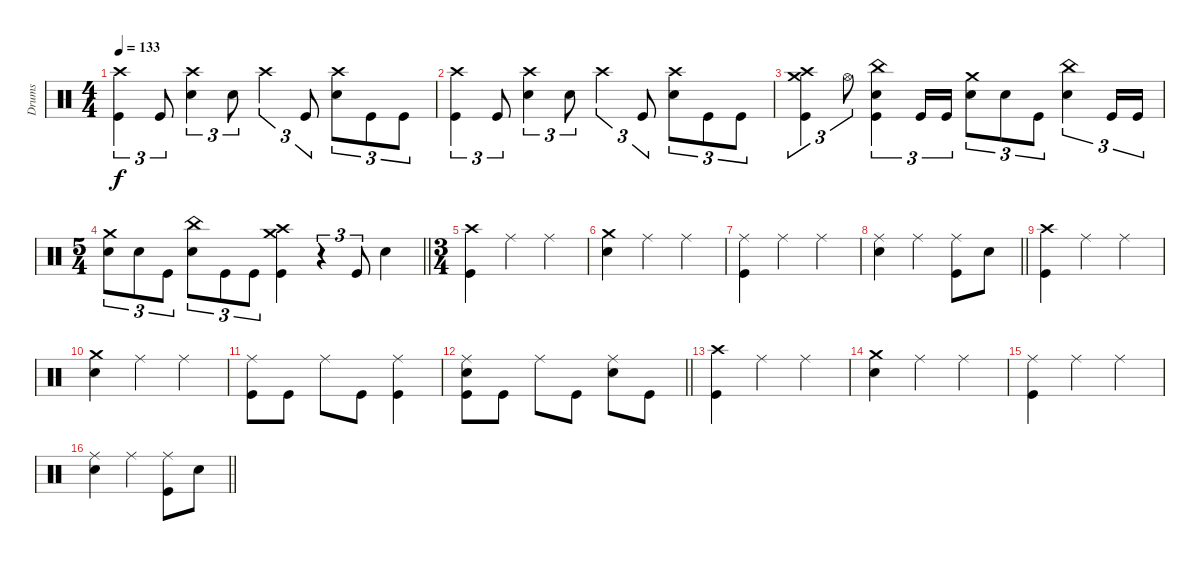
\track ("Drums" "Drums") {instrument percussion}
\staff
\articulation defaults
\ts (4 4)
\tempo 133
\clef neutral
\ks c
("Crash high (hit)" "Kick (hit)").4{tu (3 2) dy f} "Kick (hit)".8{tu (3 2)} ("Crash high (hit)" "Electric Snare (hit)").4{tu (3 2)} "Electric Snare (hit)".8{tu (3 2)} "Crash high (hit)".4{tu (3 2)} "Kick (hit)".8{tu (3 2)} ("Crash high (hit)" "Electric Snare (hit)").8{tu (3 2)} "Kick (hit)".8{tu (3 2)} "Kick (hit)".8{tu (3 2)} |
("Crash high (hit)" "Kick (hit)").4{tu (3 2)} "Kick (hit)".8{tu (3 2)} ("Crash high (hit)" "Electric Snare (hit)").4{tu (3 2)} "Electric Snare (hit)".8{tu (3 2)} "Crash high (hit)".4{tu (3 2)} "Kick (hit)".8{tu (3 2)} ("Crash high (hit)" "Electric Snare (hit)").8{tu (3 2)} "Kick (hit)".8{tu (3 2)} "Kick (hit)".8{tu (3 2)} |
("Crash high (hit)" "Crash medium (hit)" "Kick (hit)").4{tu (3 2)} "Hi-Hat (open)".8{tu (3 2)} ("China (hit)" "Electric Snare (hit)" "Kick (hit)").4{tu (3 2)} "Kick (hit)".16{tu (3 2)} "Kick (hit)".16{tu (3 2)} ("Crash medium (hit)" "Electric Snare (hit)").8{tu (3 2)} "Electric Snare (hit)".8{tu (3 2)} "Kick (hit)".8{tu (3 2)} ("China (hit)" "Electric Snare (hit)").4{tu (3 2)} "Kick (hit)".16{tu (3 2)} "Kick (hit)".16{tu (3 2)} |
\ts (5 4)
\barLineRight lightlight
("Crash medium (hit)" "Electric Snare (hit)").8{tu (3 2)} "Electric Snare (hit)".8{tu (3 2)} "Kick (hit)".8{tu (3 2)} ("China (hit)" "Electric Snare (hit)").8{tu (3 2)} "Kick (hit)".8{tu (3 2)} "Kick (hit)".8{tu (3 2)} ("Crash high (hit)" "Crash medium (hit)" "Kick (hit)").4 r.4{tu (3 2)} "Kick (hit)".8{tu (3 2)} "Electric Snare (hit)".4 |
\ts (3 4)
\section ("" "")
("Crash high (hit)" "Kick (hit)").4 "Ride (middle)".4 "Ride (middle)".4 |
("Crash medium (hit)" "Electric Snare (hit)").4 "Ride (middle)".4 "Ride (middle)".4 |
("Ride (middle)" "Kick (hit)").4 "Ride (middle)".4 "Ride (middle)".4 |
\barLineRight lightlight
("Ride (middle)" "Electric Snare (hit)").4 "Ride (middle)".4 ("Ride (middle)" "Kick (hit)").8 "Electric Snare (hit)".8 |
("Crash high (hit)" "Kick (hit)").4 "Ride (middle)".4 "Ride (middle)".4 |
("Crash medium (hit)" "Electric Snare (hit)").4 "Ride (middle)".4 "Ride (middle)".4 |
("Ride (middle)" "Kick (hit)").8 "Kick (hit)".8 "Ride (middle)".8 "Kick (hit)".8 ("Ride (middle)" "Kick (hit)").4 |
\barLineRight lightlight
("Ride (middle)" "Electric Snare (hit)" "Kick (hit)").8 "Kick (hit)".8 "Ride (middle)".8 "Kick (hit)".8 ("Ride (middle)" "Electric Snare (hit)").8 "Kick (hit)".8 |
("Crash high (hit)" "Kick (hit)").4 "Ride (middle)".4 "Ride (middle)".4 |
("Crash medium (hit)" "Electric Snare (hit)").4 "Ride (middle)".4 "Ride (middle)".4 |
("Ride (middle)" "Kick (hit)").4 "Ride (middle)".4 "Ride (middle)".4 |
\barLineRight lightlight
("Ride (middle)" "Electric Snare (hit)").4 "Ride (middle)".4 ("Ride (middle)" "Kick (hit)").8 "Electric Snare (hit)".8
